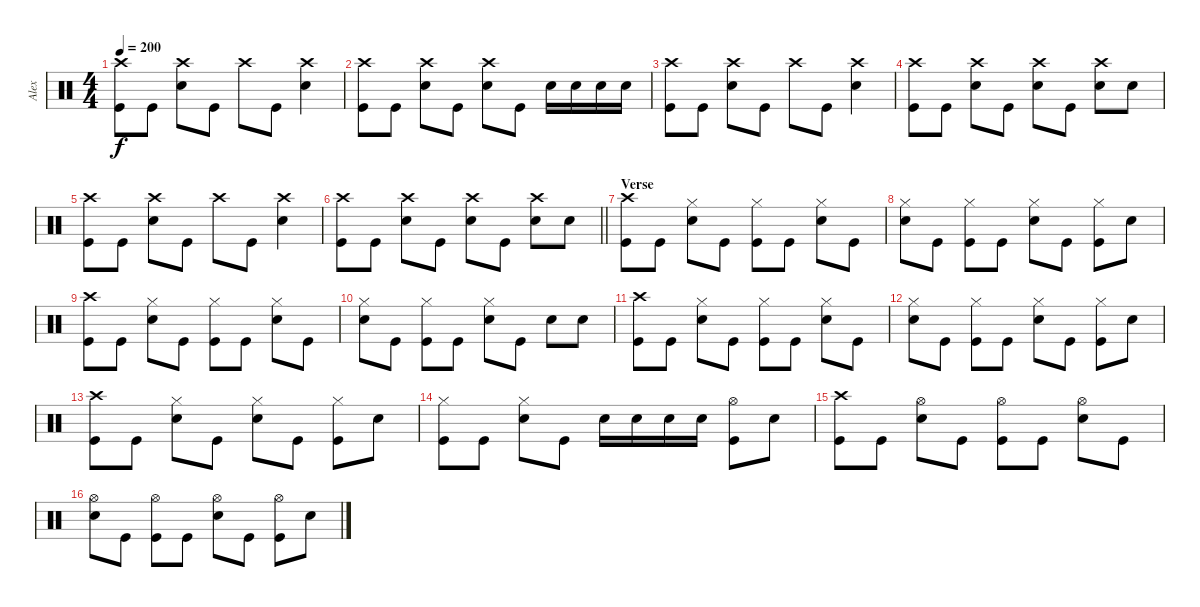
\track ("Alex" "Alex") {instrument percussion}
\staff {score}
\articulation defaults
\ts (4 4)
\tempo 200
\clef neutral
\ks c
("Crash high (hit)" "Kick (hit)").8{dy f} "Kick (hit)".8 ("Crash high (hit)" "Snare (hit) 2").8 "Kick (hit)".8 "Crash high (hit)".8 "Kick (hit)".8 ("Crash high (hit)" "Snare (hit) 2").4 |
("Crash high (hit)" "Kick (hit)").8 "Kick (hit)".8 ("Crash high (hit)" "Snare (hit) 2").8 "Kick (hit)".8 ("Crash high (hit)" "Snare (hit) 2").8 "Kick (hit)".8 "Snare (hit) 2".16 "Snare (hit) 2".16 "Snare (hit) 2".16 "Snare (hit) 2".16 |
("Crash high (hit)" "Kick (hit)").8 "Kick (hit)".8 ("Crash high (hit)" "Snare (hit) 2").8 "Kick (hit)".8 "Crash high (hit)".8 "Kick (hit)".8 ("Crash high (hit)" "Snare (hit) 2").4 |
("Crash high (hit)" "Kick (hit)").8 "Kick (hit)".8 ("Crash high (hit)" "Snare (hit) 2").8 "Kick (hit)".8 ("Crash high (hit)" "Snare (hit) 2").8 "Kick (hit)".8 ("Crash high (hit)" "Snare (hit) 2").8 "Snare (hit) 2".8 |
("Crash high (hit)" "Kick (hit)").8 "Kick (hit)".8 ("Crash high (hit)" "Snare (hit) 2").8 "Kick (hit)".8 "Crash high (hit)".8 "Kick (hit)".8 ("Crash high (hit)" "Snare (hit) 2").4 |
\barLineRight lightlight
("Crash high (hit)" "Kick (hit)").8 "Kick (hit)".8 ("Crash high (hit)" "Snare (hit) 2").8 "Kick (hit)".8 ("Crash high (hit)" "Snare (hit) 2").8 "Kick (hit)".8 ("Crash high (hit)" "Snare (hit) 2").8 "Snare (hit) 2".8 |
\section ("" "Verse")
("Crash high (hit)" "Kick (hit)").8 "Kick (hit)".8 ("Hi-Hat (closed)" "Snare (hit) 2").8 "Kick (hit)".8 ("Hi-Hat (closed)" "Kick (hit)").8 "Kick (hit)".8 ("Hi-Hat (closed)" "Snare (hit) 2").8 "Kick (hit)".8 |
("Hi-Hat (closed)" "Snare (hit) 2").8 "Kick (hit)".8 ("Hi-Hat (closed)" "Kick (hit)").8 "Kick (hit)".8 ("Hi-Hat (closed)" "Snare (hit) 2").8 "Kick (hit)".8 ("Hi-Hat (closed)" "Kick (hit)").8 "Snare (hit) 2".8 |
("Crash high (hit)" "Kick (hit)").8 "Kick (hit)".8 ("Hi-Hat (closed)" "Snare (hit) 2").8 "Kick (hit)".8 ("Hi-Hat (closed)" "Kick (hit)").8 "Kick (hit)".8 ("Hi-Hat (closed)" "Snare (hit) 2").8 "Kick (hit)".8 |
("Hi-Hat (closed)" "Snare (hit) 2").8 "Kick (hit)".8 ("Hi-Hat (closed)" "Kick (hit)").8 "Kick (hit)".8 ("Hi-Hat (closed)" "Snare (hit) 2").8 "Kick (hit)".8 "Snare (hit) 2".8 "Snare (hit) 2".8 |
("Crash high (hit)" "Kick (hit)").8 "Kick (hit)".8 ("Hi-Hat (closed)" "Snare (hit) 2").8 "Kick (hit)".8 ("Hi-Hat (closed)" "Kick (hit)").8 "Kick (hit)".8 ("Hi-Hat (closed)" "Snare (hit) 2").8 "Kick (hit)".8 |
("Hi-Hat (closed)" "Snare (hit) 2").8 "Kick (hit)".8 ("Hi-Hat (closed)" "Kick (hit)").8 "Kick (hit)".8 ("Hi-Hat (closed)" "Snare (hit) 2").8 "Kick (hit)".8 ("Hi-Hat (closed)" "Kick (hit)").8 "Snare (hit) 2".8 |
("Crash high (hit)" "Kick (hit)").8 "Kick (hit)".8 ("Hi-Hat (closed)" "Snare (hit) 2").8 "Kick (hit)".8 ("Hi-Hat (closed)" "Snare (hit) 2").8 "Kick (hit)".8 ("Hi-Hat (closed)" "Kick (hit)").8 "Snare (hit) 2".8 |
("Hi-Hat (closed)" "Kick (hit)").8 "Kick (hit)".8 ("Hi-Hat (closed)" "Snare (hit) 2").8 "Kick (hit)".8 "Snare (hit) 2".16 "Snare (hit) 2".16 "Snare (hit) 2".16 "Snare (hit) 2".16 ("Hi-Hat (open)" "Kick (hit)").8 "Snare (hit) 2".8 |
("Crash high (hit)" "Kick (hit)").8 "Kick (hit)".8 ("Hi-Hat (open)" "Snare (hit) 2").8 "Kick (hit)".8 ("Hi-Hat (open)" "Kick (hit)").8 "Kick (hit)".8 ("Hi-Hat (open)" "Snare (hit) 2").8 "Kick (hit)".8 |
("Hi-Hat (open)" "Snare (hit) 2").8 "Kick (hit)".8 ("Hi-Hat (open)" "Kick (hit)").8 "Kick (hit)".8 ("Hi-Hat (open)" "Snare (hit) 2").8 "Kick (hit)".8 ("Hi-Hat (open)" "Kick (hit)").8 "Snare (hit) 2".8
